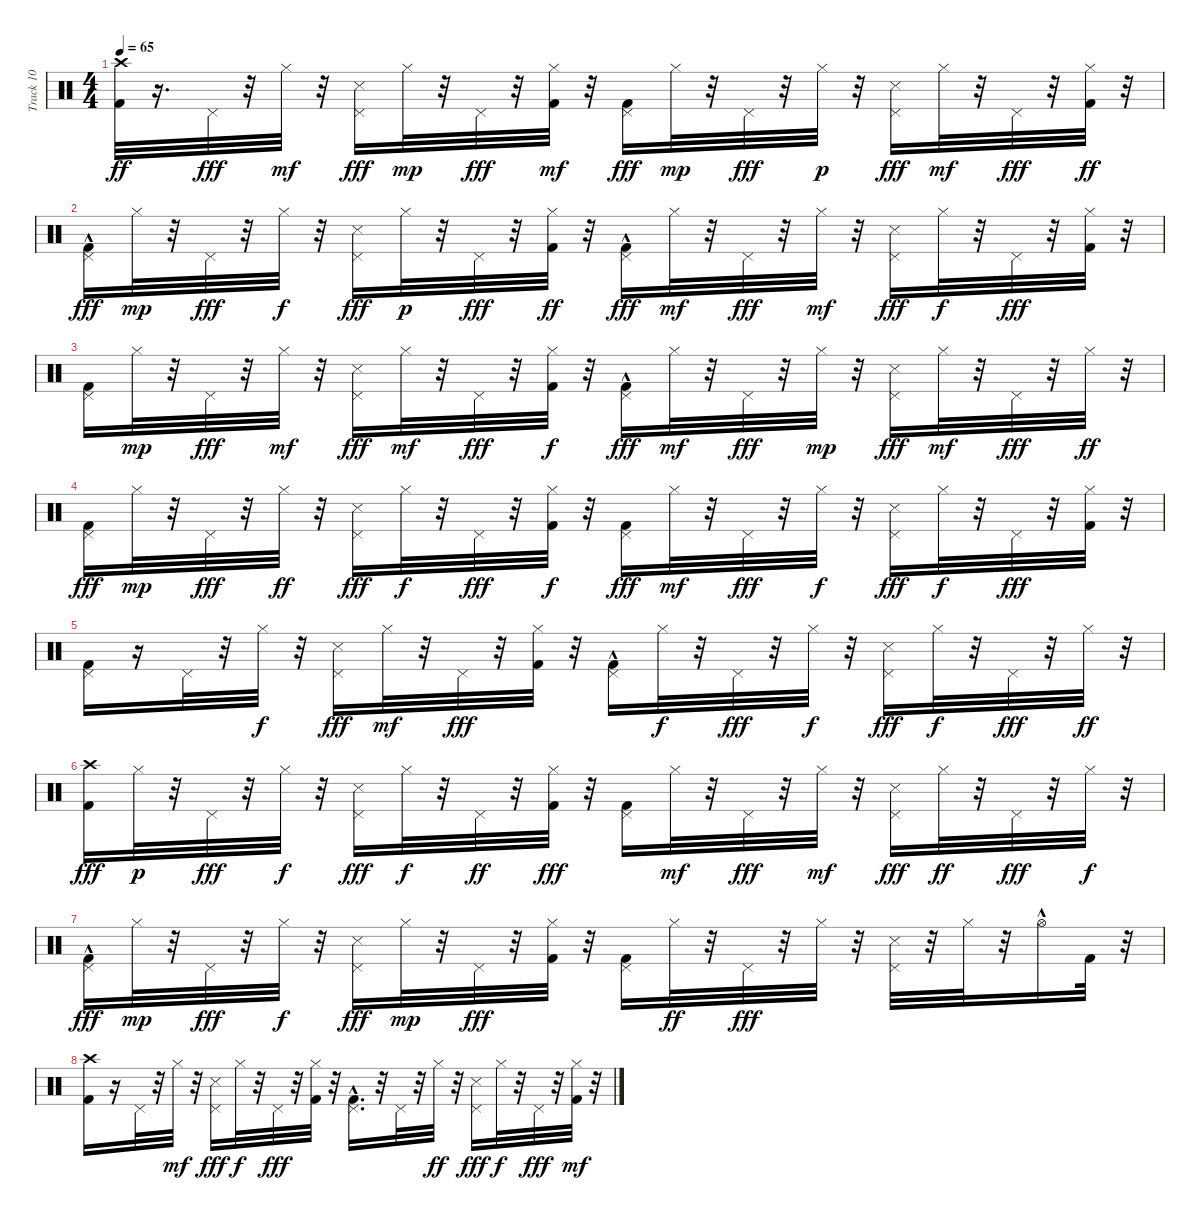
\track ("Track 10" "Track 10") {instrument percussion}
\staff {score}
\articulation defaults
\ts (4 4)
\tempo 65
\clef neutral
\ks c
("Crash high (hit)" "Kick (hit) 2").32{dy ff} r.16{d} "Pedal Hi-Hat (hit)".32{dy fff} r.32 "Hi-Hat (closed)".32{dy mf} r.32 ("Snare (side stick) 3" "Pedal Hi-Hat (hit)").16{dy fff} "Hi-Hat (closed)".32{dy mp} r.32 "Pedal Hi-Hat (hit)".32{dy fff} r.32 ("Kick (hit) 2" "Hi-Hat (closed)").32{dy mf} r.32 ("Kick (hit) 2" "Pedal Hi-Hat (hit)").16{dy fff} "Hi-Hat (closed)".32{dy mp} r.32 "Pedal Hi-Hat (hit)".32{dy fff} r.32 "Hi-Hat (closed)".32{dy p} r.32 ("Snare (side stick) 3" "Pedal Hi-Hat (hit)").16{dy fff} "Hi-Hat (closed)".32{dy mf} r.32 "Pedal Hi-Hat (hit)".32{dy fff} r.32 ("Kick (hit) 2" "Hi-Hat (closed)").32{dy ff} r.32 |
("Kick (hit) 2"{hac} "Pedal Hi-Hat (hit)").16{dy fff} "Hi-Hat (closed)".32{dy mp} r.32 "Pedal Hi-Hat (hit)".32{dy fff} r.32 "Hi-Hat (closed)".32{dy f} r.32 ("Snare (side stick) 3" "Pedal Hi-Hat (hit)").16{dy fff} "Hi-Hat (closed)".32{dy p} r.32 "Pedal Hi-Hat (hit)".32{dy fff} r.32 ("Kick (hit) 2" "Hi-Hat (closed)").32{dy ff} r.32 ("Kick (hit) 2"{hac} "Pedal Hi-Hat (hit)").16{dy fff} "Hi-Hat (closed)".32{dy mf} r.32 "Pedal Hi-Hat (hit)".32{dy fff} r.32 "Hi-Hat (closed)".32{dy mf} r.32 ("Snare (side stick) 3" "Pedal Hi-Hat (hit)").16{dy fff} "Hi-Hat (closed)".32{dy f} r.32 "Pedal Hi-Hat (hit)".32{dy fff} r.32 ("Kick (hit) 2" "Hi-Hat (closed)").32 r.32 |
("Kick (hit) 2" "Pedal Hi-Hat (hit)").16 "Hi-Hat (closed)".32{dy mp} r.32 "Pedal Hi-Hat (hit)".32{dy fff} r.32 "Hi-Hat (closed)".32{dy mf} r.32 ("Snare (side stick) 3" "Pedal Hi-Hat (hit)").16{dy fff} "Hi-Hat (closed)".32{dy mf} r.32 "Pedal Hi-Hat (hit)".32{dy fff} r.32 ("Kick (hit) 2" "Hi-Hat (closed)").32{dy f} r.32 ("Kick (hit) 2"{hac} "Pedal Hi-Hat (hit)").16{dy fff} "Hi-Hat (closed)".32{dy mf} r.32 "Pedal Hi-Hat (hit)".32{dy fff} r.32 "Hi-Hat (closed)".32{dy mp} r.32 ("Snare (side stick) 3" "Pedal Hi-Hat (hit)").16{dy fff} "Hi-Hat (closed)".32{dy mf} r.32 "Pedal Hi-Hat (hit)".32{dy fff} r.32 "Hi-Hat (closed)".32{dy ff} r.32 |
("Kick (hit) 2" "Pedal Hi-Hat (hit)").16{dy fff} "Hi-Hat (closed)".32{dy mp} r.32 "Pedal Hi-Hat (hit)".32{dy fff} r.32 "Hi-Hat (closed)".32{dy ff} r.32 ("Snare (side stick) 3" "Pedal Hi-Hat (hit)").16{dy fff} "Hi-Hat (closed)".32{dy f} r.32 "Pedal Hi-Hat (hit)".32{dy fff} r.32 ("Kick (hit) 2" "Hi-Hat (closed)").32{dy f} r.32 ("Kick (hit) 2" "Pedal Hi-Hat (hit)").16{dy fff} "Hi-Hat (closed)".32{dy mf} r.32 "Pedal Hi-Hat (hit)".32{dy fff} r.32 "Hi-Hat (closed)".32{dy f} r.32 ("Snare (side stick) 3" "Pedal Hi-Hat (hit)").16{dy fff} "Hi-Hat (closed)".32{dy f} r.32 "Pedal Hi-Hat (hit)".32{dy fff} r.32 ("Kick (hit) 2" "Hi-Hat (closed)").32 r.32 |
("Kick (hit) 2" "Pedal Hi-Hat (hit)").16 r.16 "Pedal Hi-Hat (hit)".32 r.32 "Hi-Hat (closed)".32{dy f} r.32 ("Snare (side stick) 3" "Pedal Hi-Hat (hit)").16{dy fff} "Hi-Hat (closed)".32{dy mf} r.32 "Pedal Hi-Hat (hit)".32{dy fff} r.32 ("Kick (hit) 2" "Hi-Hat (closed)").32 r.32 ("Kick (hit) 2"{hac} "Pedal Hi-Hat (hit)").16 "Hi-Hat (closed)".32{dy f} r.32 "Pedal Hi-Hat (hit)".32{dy fff} r.32 "Hi-Hat (closed)".32{dy f} r.32 ("Snare (side stick) 3" "Pedal Hi-Hat (hit)").16{dy fff} "Hi-Hat (closed)".32{dy f} r.32 "Pedal Hi-Hat (hit)".32{dy fff} r.32 "Hi-Hat (closed)".32{dy ff} r.32 |
("Kick (hit) 2" "Crash high (hit)").16{dy fff} "Hi-Hat (closed)".32{dy p} r.32 "Pedal Hi-Hat (hit)".32{dy fff} r.32 "Hi-Hat (closed)".32{dy f} r.32 ("Snare (side stick) 3" "Pedal Hi-Hat (hit)").16{dy fff} "Hi-Hat (closed)".32{dy f} r.32 "Pedal Hi-Hat (hit)".32{dy ff} r.32 ("Kick (hit) 2" "Hi-Hat (closed)").32{dy fff} r.32 ("Pedal Hi-Hat (hit)" "Kick (hit) 2").16 "Hi-Hat (closed)".32{dy mf} r.32 "Pedal Hi-Hat (hit)".32{dy fff} r.32 "Hi-Hat (closed)".32{dy mf} r.32 ("Snare (side stick) 3" "Pedal Hi-Hat (hit)").16{dy fff} "Hi-Hat (closed)".32{dy ff} r.32 "Pedal Hi-Hat (hit)".32{dy fff} r.32 "Hi-Hat (closed)".32{dy f} r.32 |
("Kick (hit) 2"{hac} "Pedal Hi-Hat (hit)").16{dy fff} "Hi-Hat (closed)".32{dy mp} r.32 "Pedal Hi-Hat (hit)".32{dy fff} r.32 "Hi-Hat (closed)".32{dy f} r.32 ("Snare (side stick) 3" "Pedal Hi-Hat (hit)").16{dy fff} "Hi-Hat (closed)".32{dy mp} r.32 "Pedal Hi-Hat (hit)".32{dy fff} r.32 ("Kick (hit) 2" "Hi-Hat (closed)").32 r.32 ("Pedal Hi-Hat (hit)" "Kick (hit) 2").16 "Hi-Hat (closed)".32{dy ff} r.32 "Pedal Hi-Hat (hit)".32{dy fff} r.32 "Hi-Hat (closed)".32 r.32 ("Snare (side stick) 3" "Pedal Hi-Hat (hit)").32 r.32 "Hi-Hat (closed)".32 r.32 "Hi-Hat (open)"{hac}.16 "Kick (hit) 2".32 r.32 |
("Kick (hit) 2" "Crash high (hit)").16 r.16 "Pedal Hi-Hat (hit)".32 r.32 "Hi-Hat (closed)".32{dy mf} r.32 ("Snare (side stick) 3" "Pedal Hi-Hat (hit)").16{dy fff} "Hi-Hat (closed)".32{dy f} r.32 "Pedal Hi-Hat (hit)".32{dy fff} r.32 ("Kick (hit) 2" "Hi-Hat (closed)").32 r.32 ("Kick (hit) 2"{hac} "Pedal Hi-Hat (hit)").16{d} r.32 "Pedal Hi-Hat (hit)".32 r.32 "Hi-Hat (closed)".32{dy ff} r.32 ("Snare (side stick) 3" "Pedal Hi-Hat (hit)").16{dy fff} "Hi-Hat (closed)".32{dy f} r.32 "Pedal Hi-Hat (hit)".32{dy fff} r.32 ("Hi-Hat (closed)" "Kick (hit) 2").32{dy mf} r.32
